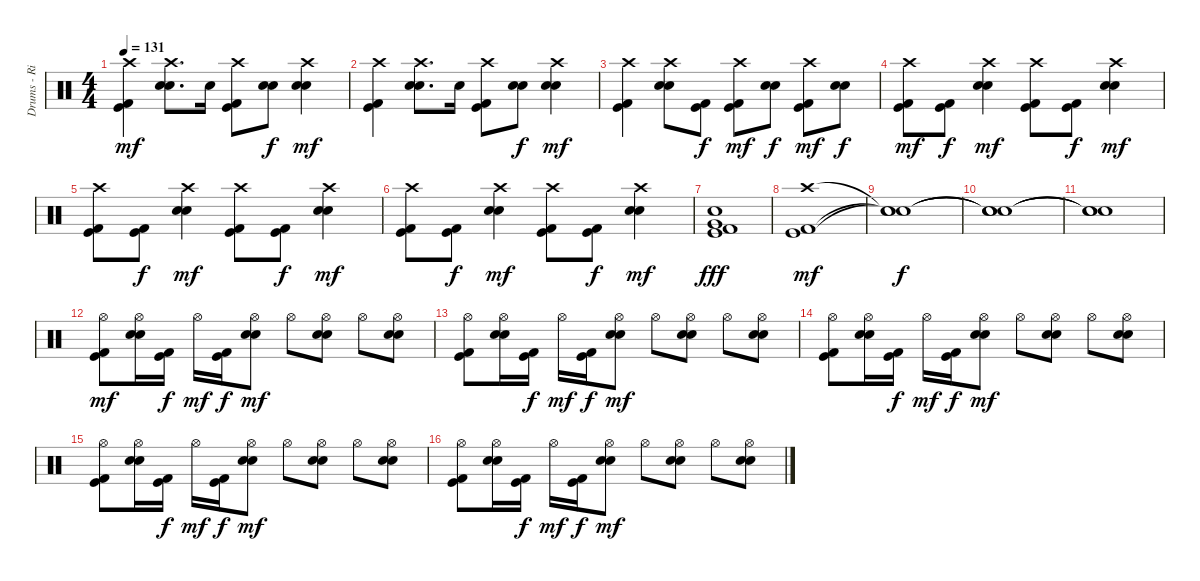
\track ("Drums - Rian" "Drums - Ri") {instrument percussion}
\staff
\articulation defaults
\ts (4 4)
\tempo 131
\clef neutral
\ks c
("Kick (hit) 2" "Kick (hit)" "Crash high (hit)").4{dy mf} ("Electric Snare (hit)" "Electric Snare (hit)" "Crash high (hit)").8{d} "Electric Snare (hit)".16 ("Kick (hit) 2" "Kick (hit)" "Crash high (hit)").8 ("Electric Snare (hit)" "Electric Snare (hit)").8{dy f} ("Electric Snare (hit)" "Electric Snare (hit)" "Crash high (hit)").4{dy mf} |
("Kick (hit) 2" "Kick (hit)" "Crash high (hit)").4 ("Electric Snare (hit)" "Electric Snare (hit)" "Crash high (hit)").8{d} "Electric Snare (hit)".16 ("Kick (hit) 2" "Kick (hit)" "Crash high (hit)").8 ("Electric Snare (hit)" "Electric Snare (hit)").8{dy f} ("Electric Snare (hit)" "Electric Snare (hit)" "Crash high (hit)").4{dy mf} |
("Kick (hit) 2" "Kick (hit)" "Crash high (hit)").4 ("Electric Snare (hit)" "Electric Snare (hit)" "Crash high (hit)").8 ("Kick (hit) 2" "Kick (hit)").8{dy f} ("Kick (hit) 2" "Kick (hit)" "Crash high (hit)").8{dy mf} ("Electric Snare (hit)" "Electric Snare (hit)").8{dy f} ("Kick (hit) 2" "Kick (hit)" "Crash high (hit)").8{dy mf} ("Electric Snare (hit)" "Electric Snare (hit)").8{dy f} |
("Kick (hit) 2" "Kick (hit)" "Crash high (hit)").8{dy mf} ("Kick (hit) 2" "Kick (hit)").8{dy f} ("Electric Snare (hit)" "Electric Snare (hit)" "Crash high (hit)").4{dy mf} ("Kick (hit) 2" "Kick (hit)" "Crash high (hit)").8 ("Kick (hit) 2" "Kick (hit)").8{dy f} ("Electric Snare (hit)" "Electric Snare (hit)" "Crash high (hit)").4{dy mf} |
("Kick (hit) 2" "Kick (hit)" "Crash high (hit)").8 ("Kick (hit) 2" "Kick (hit)").8{dy f} ("Electric Snare (hit)" "Electric Snare (hit)" "Crash high (hit)").4{dy mf} ("Kick (hit) 2" "Kick (hit)" "Crash high (hit)").8 ("Kick (hit) 2" "Kick (hit)").8{dy f} ("Electric Snare (hit)" "Electric Snare (hit)" "Crash high (hit)").4{dy mf} |
("Kick (hit) 2" "Kick (hit)" "Crash high (hit)").8 ("Kick (hit) 2" "Kick (hit)").8{dy f} ("Electric Snare (hit)" "Electric Snare (hit)" "Crash high (hit)").4{dy mf} ("Kick (hit) 2" "Kick (hit)" "Crash high (hit)").8 ("Kick (hit) 2" "Kick (hit)").8{dy f} ("Electric Snare (hit)" "Electric Snare (hit)" "Crash high (hit)").4{dy mf} |
("Kick (hit) 2" "Kick (hit)" "Electric Snare (hit)" "Very Low Tom (hit)").1{dy fff} |
("Kick (hit) 2" "Kick (hit)" "Crash high (hit)").1{dy mf} |
("Snare (hit)"{t} "Snare (hit)"{t} "Snare (hit)"{t}).1{dy f} |
("Snare (hit)"{t} "Snare (hit)"{t} "Snare (hit)"{t}).1 |
("Snare (hit)"{t} "Snare (hit)"{t} "Snare (hit)"{t}).1 |
("Kick (hit) 2" "Kick (hit)" "Hi-Hat (open)").8{dy mf} ("Electric Snare (hit)" "Electric Snare (hit)" "Hi-Hat (open)").16 ("Kick (hit) 2" "Kick (hit)").16{dy f} "Hi-Hat (open)".16{dy mf} ("Kick (hit) 2" "Kick (hit)").16{dy f} ("Electric Snare (hit)" "Electric Snare (hit)" "Hi-Hat (open)").8{dy mf} "Hi-Hat (open)".8 ("Electric Snare (hit)" "Electric Snare (hit)" "Hi-Hat (open)").8 "Hi-Hat (open)".8 ("Electric Snare (hit)" "Electric Snare (hit)" "Hi-Hat (open)").8 |
("Kick (hit) 2" "Kick (hit)" "Hi-Hat (open)").8 ("Electric Snare (hit)" "Electric Snare (hit)" "Hi-Hat (open)").16 ("Kick (hit) 2" "Kick (hit)").16{dy f} "Hi-Hat (open)".16{dy mf} ("Kick (hit) 2" "Kick (hit)").16{dy f} ("Electric Snare (hit)" "Electric Snare (hit)" "Hi-Hat (open)").8{dy mf} "Hi-Hat (open)".8 ("Electric Snare (hit)" "Electric Snare (hit)" "Hi-Hat (open)").8 "Hi-Hat (open)".8 ("Electric Snare (hit)" "Electric Snare (hit)" "Hi-Hat (open)").8 |
("Kick (hit) 2" "Kick (hit)" "Hi-Hat (open)").8 ("Electric Snare (hit)" "Electric Snare (hit)" "Hi-Hat (open)").16 ("Kick (hit) 2" "Kick (hit)").16{dy f} "Hi-Hat (open)".16{dy mf} ("Kick (hit) 2" "Kick (hit)").16{dy f} ("Electric Snare (hit)" "Electric Snare (hit)" "Hi-Hat (open)").8{dy mf} "Hi-Hat (open)".8 ("Electric Snare (hit)" "Electric Snare (hit)" "Hi-Hat (open)").8 "Hi-Hat (open)".8 ("Electric Snare (hit)" "Electric Snare (hit)" "Hi-Hat (open)").8 |
("Kick (hit) 2" "Kick (hit)" "Hi-Hat (open)").8 ("Electric Snare (hit)" "Electric Snare (hit)" "Hi-Hat (open)").16 ("Kick (hit) 2" "Kick (hit)").16{dy f} "Hi-Hat (open)".16{dy mf} ("Kick (hit) 2" "Kick (hit)").16{dy f} ("Electric Snare (hit)" "Electric Snare (hit)" "Hi-Hat (open)").8{dy mf} "Hi-Hat (open)".8 ("Electric Snare (hit)" "Electric Snare (hit)" "Hi-Hat (open)").8 "Hi-Hat (open)".8 ("Electric Snare (hit)" "Electric Snare (hit)" "Hi-Hat (open)").8 |
("Kick (hit) 2" "Kick (hit)" "Hi-Hat (open)").8 ("Electric Snare (hit)" "Electric Snare (hit)" "Hi-Hat (open)").16 ("Kick (hit) 2" "Kick (hit)").16{dy f} "Hi-Hat (open)".16{dy mf} ("Kick (hit) 2" "Kick (hit)").16{dy f} ("Electric Snare (hit)" "Electric Snare (hit)" "Hi-Hat (open)").8{dy mf} "Hi-Hat (open)".8 ("Electric Snare (hit)" "Electric Snare (hit)" "Hi-Hat (open)").8 "Hi-Hat (open)".8 ("Electric Snare (hit)" "Electric Snare (hit)" "Hi-Hat (open)").8
